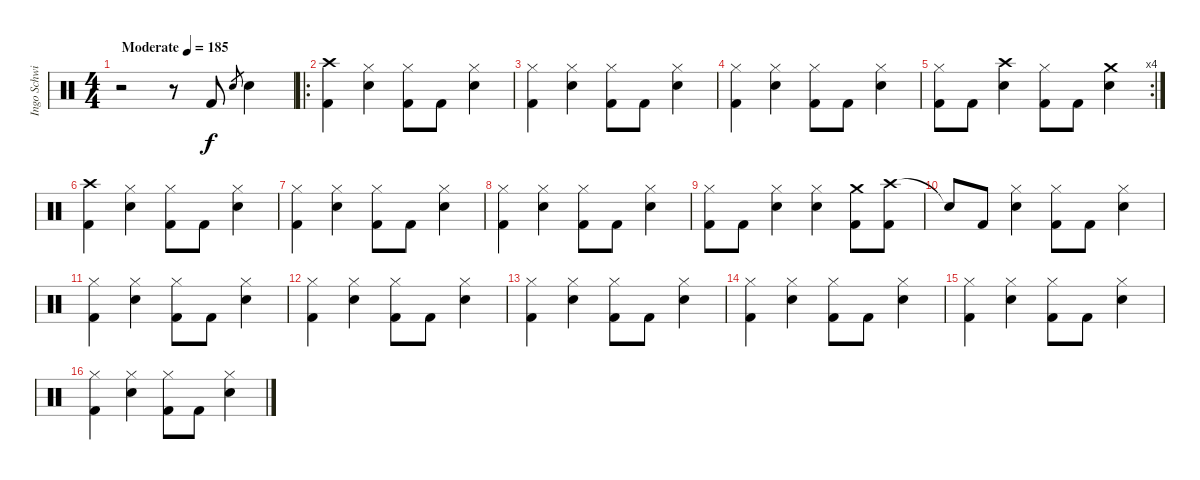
\track ("Ingo Schwischtenberg" "Ingo Schwi") {instrument percussion}
\staff {score}
\articulation defaults
\ts (4 4)
\tempo (185 "Moderate")
\clef neutral
\ks c
r.2{dy f} r.8 "Kick (hit) 2".8 "Electric Snare (hit)".8{gr} "Electric Snare (hit)".4 |
\ro
("Crash high (hit)" "Kick (hit) 2").4 ("Hi-Hat (closed)" "Electric Snare (hit)").4 ("Hi-Hat (closed)" "Kick (hit) 2").8 "Kick (hit) 2".8 ("Hi-Hat (closed)" "Electric Snare (hit)").4 |
("Hi-Hat (closed)" "Kick (hit) 2").4 ("Hi-Hat (closed)" "Electric Snare (hit)").4 ("Hi-Hat (closed)" "Kick (hit) 2").8 "Kick (hit) 2".8 ("Hi-Hat (closed)" "Electric Snare (hit)").4 |
("Hi-Hat (closed)" "Kick (hit) 2").4 ("Hi-Hat (closed)" "Electric Snare (hit)").4 ("Hi-Hat (closed)" "Kick (hit) 2").8 "Kick (hit) 2".8 ("Hi-Hat (closed)" "Electric Snare (hit)").4 |
\rc 4
("Hi-Hat (closed)" "Kick (hit) 2").8 "Kick (hit) 2".8 ("Crash high (hit)" "Electric Snare (hit)").4 ("Hi-Hat (closed)" "Kick (hit) 2").8 "Kick (hit) 2".8 ("Crash medium (hit)" "Electric Snare (hit)").4 |
("Crash high (hit)" "Kick (hit) 2").4 ("Hi-Hat (closed)" "Electric Snare (hit)").4 ("Hi-Hat (closed)" "Kick (hit) 2").8 "Kick (hit) 2".8 ("Hi-Hat (closed)" "Electric Snare (hit)").4 |
("Hi-Hat (closed)" "Kick (hit) 2").4 ("Hi-Hat (closed)" "Electric Snare (hit)").4 ("Hi-Hat (closed)" "Kick (hit) 2").8 "Kick (hit) 2".8 ("Hi-Hat (closed)" "Electric Snare (hit)").4 |
("Hi-Hat (closed)" "Kick (hit) 2").4 ("Hi-Hat (closed)" "Electric Snare (hit)").4 ("Hi-Hat (closed)" "Kick (hit) 2").8 "Kick (hit) 2".8 ("Hi-Hat (closed)" "Electric Snare (hit)").4 |
("Hi-Hat (closed)" "Kick (hit) 2").8 "Kick (hit) 2".8 ("Hi-Hat (closed)" "Electric Snare (hit)").4 ("Hi-Hat (closed)" "Electric Snare (hit)").4 ("Crash medium (hit)" "Kick (hit) 2").8 ("Crash high (hit)" "Kick (hit) 2").8 |
"Snare (hit)"{t}.8 "Kick (hit) 2".8 ("Hi-Hat (closed)" "Electric Snare (hit)").4 ("Hi-Hat (closed)" "Kick (hit) 2").8 "Kick (hit) 2".8 ("Hi-Hat (closed)" "Electric Snare (hit)").4 |
("Hi-Hat (closed)" "Kick (hit) 2").4 ("Hi-Hat (closed)" "Electric Snare (hit)").4 ("Hi-Hat (closed)" "Kick (hit) 2").8 "Kick (hit) 2".8 ("Hi-Hat (closed)" "Electric Snare (hit)").4 |
("Hi-Hat (closed)" "Kick (hit) 2").4 ("Hi-Hat (closed)" "Electric Snare (hit)").4 ("Hi-Hat (closed)" "Kick (hit) 2").8 "Kick (hit) 2".8 ("Hi-Hat (closed)" "Electric Snare (hit)").4 |
("Hi-Hat (closed)" "Kick (hit) 2").4 ("Hi-Hat (closed)" "Electric Snare (hit)").4 ("Hi-Hat (closed)" "Kick (hit) 2").8 "Kick (hit) 2".8 ("Hi-Hat (closed)" "Electric Snare (hit)").4 |
("Hi-Hat (closed)" "Kick (hit) 2").4 ("Hi-Hat (closed)" "Electric Snare (hit)").4 ("Hi-Hat (closed)" "Kick (hit) 2").8 "Kick (hit) 2".8 ("Hi-Hat (closed)" "Electric Snare (hit)").4 |
("Hi-Hat (closed)" "Kick (hit) 2").4 ("Hi-Hat (closed)" "Electric Snare (hit)").4 ("Hi-Hat (closed)" "Kick (hit) 2").8 "Kick (hit) 2".8 ("Hi-Hat (closed)" "Electric Snare (hit)").4 |
("Hi-Hat (closed)" "Kick (hit) 2").4 ("Hi-Hat (closed)" "Electric Snare (hit)").4 ("Hi-Hat (closed)" "Kick (hit) 2").8 "Kick (hit) 2".8 ("Hi-Hat (closed)" "Electric Snare (hit)").4
